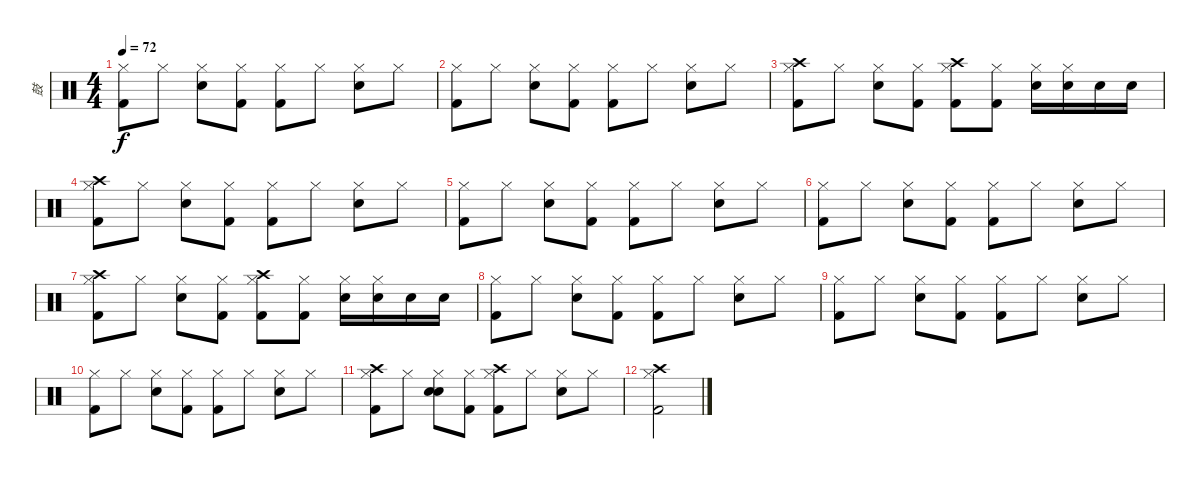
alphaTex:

\track ("鼓" "鼓") {instrument percussion}
\staff {score}
\articulation defaults
\ts (4 4)
\tempo 72
\clef neutral
\ks c
("Hi-Hat (closed)" "Kick (hit) 2").8{dy f} "Hi-Hat (closed)".8 ("Hi-Hat (closed)" "Snare (hit) 2").8 ("Hi-Hat (closed)" "Kick (hit) 2").8 ("Hi-Hat (closed)" "Kick (hit) 2").8 "Hi-Hat (closed)".8 ("Hi-Hat (closed)" "Snare (hit) 2").8 "Hi-Hat (closed)".8 |
("Hi-Hat (closed)" "Kick (hit) 2").8 "Hi-Hat (closed)".8 ("Hi-Hat (closed)" "Snare (hit) 2").8 ("Hi-Hat (closed)" "Kick (hit) 2").8 ("Hi-Hat (closed)" "Kick (hit) 2").8 "Hi-Hat (closed)".8 ("Hi-Hat (closed)" "Snare (hit) 2").8 "Hi-Hat (closed)".8 |
("Hi-Hat (closed)" "Kick (hit) 2" "Crash high (hit)").8 "Hi-Hat (closed)".8 ("Hi-Hat (closed)" "Snare (hit) 2").8 ("Hi-Hat (closed)" "Kick (hit) 2").8 ("Hi-Hat (closed)" "Crash high (hit)" "Kick (hit) 2").8 ("Hi-Hat (closed)" "Kick (hit) 2").8 ("Hi-Hat (closed)" "Snare (hit) 2").16 ("Hi-Hat (closed)" "Snare (hit) 2").16 "Snare (hit) 2".16 "Snare (hit) 2".16 |
("Hi-Hat (closed)" "Kick (hit) 2" "Crash high (hit)").8 "Hi-Hat (closed)".8 ("Hi-Hat (closed)" "Snare (hit) 2").8 ("Hi-Hat (closed)" "Kick (hit) 2").8 ("Hi-Hat (closed)" "Kick (hit) 2").8 "Hi-Hat (closed)".8 ("Hi-Hat (closed)" "Snare (hit) 2").8 "Hi-Hat (closed)".8 |
("Hi-Hat (closed)" "Kick (hit) 2").8 "Hi-Hat (closed)".8 ("Hi-Hat (closed)" "Snare (hit) 2").8 ("Hi-Hat (closed)" "Kick (hit) 2").8 ("Hi-Hat (closed)" "Kick (hit) 2").8 "Hi-Hat (closed)".8 ("Hi-Hat (closed)" "Snare (hit) 2").8 "Hi-Hat (closed)".8 |
("Hi-Hat (closed)" "Kick (hit) 2").8 "Hi-Hat (closed)".8 ("Hi-Hat (closed)" "Snare (hit) 2").8 ("Hi-Hat (closed)" "Kick (hit) 2").8 ("Hi-Hat (closed)" "Kick (hit) 2").8 "Hi-Hat (closed)".8 ("Hi-Hat (closed)" "Snare (hit) 2").8 "Hi-Hat (closed)".8 |
("Hi-Hat (closed)" "Kick (hit) 2" "Crash high (hit)").8 "Hi-Hat (closed)".8 ("Hi-Hat (closed)" "Snare (hit) 2").8 ("Hi-Hat (closed)" "Kick (hit) 2").8 ("Hi-Hat (closed)" "Crash high (hit)" "Kick (hit) 2").8 ("Hi-Hat (closed)" "Kick (hit) 2").8 ("Hi-Hat (closed)" "Snare (hit) 2").16 ("Hi-Hat (closed)" "Snare (hit) 2").16 "Snare (hit) 2".16 "Snare (hit) 2".16 |
("Hi-Hat (closed)" "Kick (hit) 2").8 "Hi-Hat (closed)".8 ("Hi-Hat (closed)" "Snare (hit) 2").8 ("Hi-Hat (closed)" "Kick (hit) 2").8 ("Hi-Hat (closed)" "Kick (hit) 2").8 "Hi-Hat (closed)".8 ("Hi-Hat (closed)" "Snare (hit) 2").8 "Hi-Hat (closed)".8 |
("Hi-Hat (closed)" "Kick (hit) 2").8 "Hi-Hat (closed)".8 ("Hi-Hat (closed)" "Snare (hit) 2").8 ("Hi-Hat (closed)" "Kick (hit) 2").8 ("Hi-Hat (closed)" "Kick (hit) 2").8 "Hi-Hat (closed)".8 ("Hi-Hat (closed)" "Snare (hit) 2").8 "Hi-Hat (closed)".8 |
("Hi-Hat (closed)" "Kick (hit) 2").8 "Hi-Hat (closed)".8 ("Hi-Hat (closed)" "Snare (hit) 2").8 ("Hi-Hat (closed)" "Kick (hit) 2").8 ("Hi-Hat (closed)" "Kick (hit) 2").8 "Hi-Hat (closed)".8 ("Hi-Hat (closed)" "Snare (hit) 2").8 "Hi-Hat (closed)".8 |
("Hi-Hat (closed)" "Crash high (hit)" "Kick (hit) 2").8 "Hi-Hat (closed)".8 ("Hi-Hat (closed)" "Snare (hit) 2" "Snare (hit) 2").8 ("Hi-Hat (closed)" "Kick (hit) 2").8 ("Hi-Hat (closed)" "Kick (hit) 2" "Crash high (hit)").8 "Hi-Hat (closed)".8 ("Hi-Hat (closed)" "Snare (hit) 2").8 "Hi-Hat (closed)".8 |
("Hi-Hat (closed)" "Crash high (hit)" "Kick (hit) 2").2
